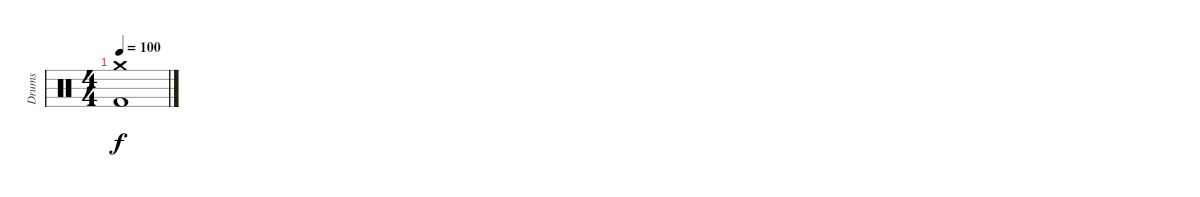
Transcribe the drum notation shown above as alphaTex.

\track ("Drums" "Drums") {instrument percussion}
\staff {score}
\articulation defaults
\ts (4 4)
\tempo 100
\clef neutral
\ks c
("Crash medium (hit)" "Kick (hit) 2").1{dy f}
